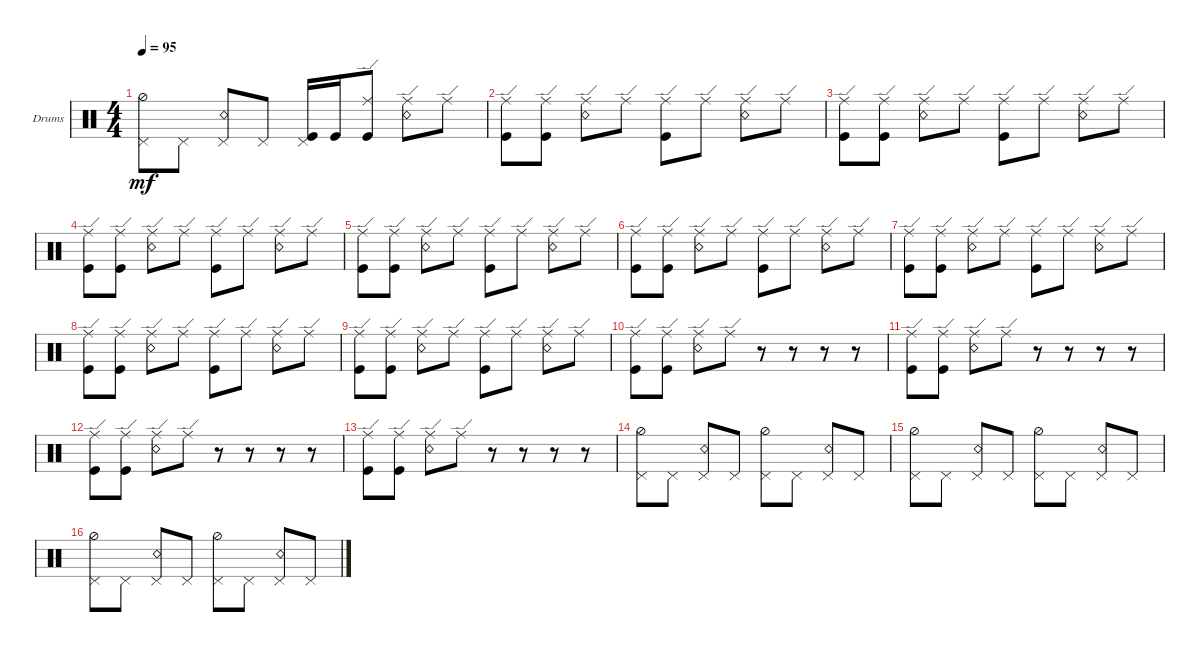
\bracketExtendMode groupsimilarinstruments
\firstSystemTrackNameOrientation horizontal
\otherSystemsTrackNameOrientation horizontal
\track ("Drumkit" "Drums") {instrument percussion}
\staff {score}
\articulation defaults
\ts (4 4)
\tempo 95
\clef neutral
\ks c
("Pedal Hi-Hat (hit)" "Hi-Hat (half)").8{dy mf} "Pedal Hi-Hat (hit)".8 ("Pedal Hi-Hat (hit)" "Snare (rim shot)").8 "Pedal Hi-Hat (hit)".8 ("Pedal Hi-Hat (hit)" "Kick (hit)").16 "Kick (hit)".16 ("Kick (hit)" "Ride (edge)").8 ("Snare (rim shot)" "Ride (edge)").8 "Ride (edge)".8 |
("Kick (hit)" "Ride (edge)").8 ("Kick (hit)" "Ride (edge)").8 ("Snare (rim shot)" "Ride (edge)").8 "Ride (edge)".8 ("Kick (hit)" "Ride (edge)").8 "Ride (edge)".8 ("Snare (rim shot)" "Ride (edge)").8 "Ride (edge)".8 |
("Kick (hit)" "Ride (edge)").8 ("Kick (hit)" "Ride (edge)").8 ("Snare (rim shot)" "Ride (edge)").8 "Ride (edge)".8 ("Kick (hit)" "Ride (edge)").8 "Ride (edge)".8 ("Snare (rim shot)" "Ride (edge)").8 "Ride (edge)".8 |
("Kick (hit)" "Ride (edge)").8 ("Kick (hit)" "Ride (edge)").8 ("Snare (rim shot)" "Ride (edge)").8 "Ride (edge)".8 ("Kick (hit)" "Ride (edge)").8 "Ride (edge)".8 ("Snare (rim shot)" "Ride (edge)").8 "Ride (edge)".8 |
("Kick (hit)" "Ride (edge)").8 ("Kick (hit)" "Ride (edge)").8 ("Snare (rim shot)" "Ride (edge)").8 "Ride (edge)".8 ("Kick (hit)" "Ride (edge)").8 "Ride (edge)".8 ("Snare (rim shot)" "Ride (edge)").8 "Ride (edge)".8 |
("Kick (hit)" "Ride (edge)").8 ("Kick (hit)" "Ride (edge)").8 ("Snare (rim shot)" "Ride (edge)").8 "Ride (edge)".8 ("Kick (hit)" "Ride (edge)").8 "Ride (edge)".8 ("Snare (rim shot)" "Ride (edge)").8 "Ride (edge)".8 |
("Kick (hit)" "Ride (edge)").8 ("Kick (hit)" "Ride (edge)").8 ("Snare (rim shot)" "Ride (edge)").8 "Ride (edge)".8 ("Kick (hit)" "Ride (edge)").8 "Ride (edge)".8 ("Snare (rim shot)" "Ride (edge)").8 "Ride (edge)".8 |
("Kick (hit)" "Ride (edge)").8 ("Kick (hit)" "Ride (edge)").8 ("Snare (rim shot)" "Ride (edge)").8 "Ride (edge)".8 ("Kick (hit)" "Ride (edge)").8 "Ride (edge)".8 ("Snare (rim shot)" "Ride (edge)").8 "Ride (edge)".8 |
("Kick (hit)" "Ride (edge)").8 ("Kick (hit)" "Ride (edge)").8 ("Snare (rim shot)" "Ride (edge)").8 "Ride (edge)".8 ("Kick (hit)" "Ride (edge)").8 "Ride (edge)".8 ("Snare (rim shot)" "Ride (edge)").8 "Ride (edge)".8 |
("Kick (hit)" "Ride (edge)").8 ("Kick (hit)" "Ride (edge)").8 ("Snare (rim shot)" "Ride (edge)").8 "Ride (edge)".8 r.8 r.8 r.8 r.8 |
("Kick (hit)" "Ride (edge)").8 ("Kick (hit)" "Ride (edge)").8 ("Snare (rim shot)" "Ride (edge)").8 "Ride (edge)".8 r.8 r.8 r.8 r.8 |
("Kick (hit)" "Ride (edge)").8 ("Kick (hit)" "Ride (edge)").8 ("Snare (rim shot)" "Ride (edge)").8 "Ride (edge)".8 r.8 r.8 r.8 r.8 |
("Kick (hit)" "Ride (edge)").8 ("Kick (hit)" "Ride (edge)").8 ("Snare (rim shot)" "Ride (edge)").8 "Ride (edge)".8 r.8 r.8 r.8 r.8 |
("Pedal Hi-Hat (hit)" "Hi-Hat (half)").8 "Pedal Hi-Hat (hit)".8 ("Pedal Hi-Hat (hit)" "Snare (rim shot)").8 "Pedal Hi-Hat (hit)".8 ("Pedal Hi-Hat (hit)" "Hi-Hat (half)").8 "Pedal Hi-Hat (hit)".8 ("Pedal Hi-Hat (hit)" "Snare (rim shot)").8 "Pedal Hi-Hat (hit)".8 |
("Pedal Hi-Hat (hit)" "Hi-Hat (half)").8 "Pedal Hi-Hat (hit)".8 ("Pedal Hi-Hat (hit)" "Snare (rim shot)").8 "Pedal Hi-Hat (hit)".8 ("Pedal Hi-Hat (hit)" "Hi-Hat (half)").8 "Pedal Hi-Hat (hit)".8 ("Pedal Hi-Hat (hit)" "Snare (rim shot)").8 "Pedal Hi-Hat (hit)".8 |
("Pedal Hi-Hat (hit)" "Hi-Hat (half)").8 "Pedal Hi-Hat (hit)".8 ("Pedal Hi-Hat (hit)" "Snare (rim shot)").8 "Pedal Hi-Hat (hit)".8 ("Pedal Hi-Hat (hit)" "Hi-Hat (half)").8 "Pedal Hi-Hat (hit)".8 ("Pedal Hi-Hat (hit)" "Snare (rim shot)").8 "Pedal Hi-Hat (hit)".8
